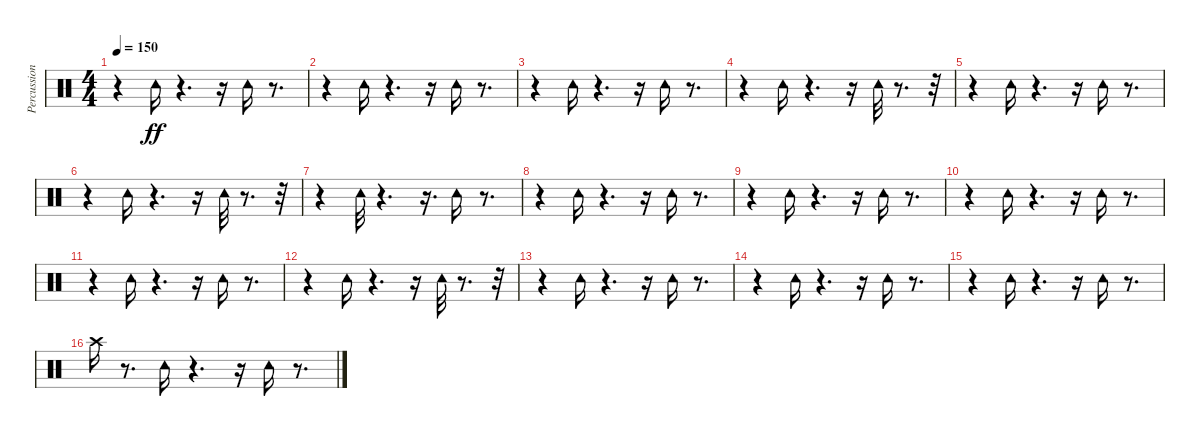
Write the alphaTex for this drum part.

\track ("Percussion" "Percussion") {instrument percussion}
\staff {score}
\articulation defaults
\ts (4 4)
\tempo 150
\clef neutral
\ks c
r.4{dy ff} "Tambourine (hit)".16 r.4{d} r.16 "Tambourine (hit)".16 r.8{d} |
r.4 "Tambourine (hit)".16 r.4{d} r.16 "Tambourine (hit)".16 r.8{d} |
r.4 "Tambourine (hit)".16 r.4{d} r.16 "Tambourine (hit)".16 r.8{d} |
r.4 "Tambourine (hit)".16 r.4{d} r.16 "Tambourine (hit)".32 r.8{d} r.32 |
r.4 "Tambourine (hit)".16 r.4{d} r.16 "Tambourine (hit)".16 r.8{d} |
r.4 "Tambourine (hit)".16 r.4{d} r.16 "Tambourine (hit)".32 r.8{d} r.32 |
r.4 "Tambourine (hit)".32 r.4{d} r.16{d} "Tambourine (hit)".16 r.8{d} |
r.4 "Tambourine (hit)".16 r.4{d} r.16 "Tambourine (hit)".16 r.8{d} |
r.4 "Tambourine (hit)".16 r.4{d} r.16 "Tambourine (hit)".16 r.8{d} |
r.4 "Tambourine (hit)".16 r.4{d} r.16 "Tambourine (hit)".16 r.8{d} |
r.4 "Tambourine (hit)".16 r.4{d} r.16 "Tambourine (hit)".16 r.8{d} |
r.4 "Tambourine (hit)".16 r.4{d} r.16 "Tambourine (hit)".32 r.8{d} r.32 |
r.4 "Tambourine (hit)".16 r.4{d} r.16 "Tambourine (hit)".16 r.8{d} |
r.4 "Tambourine (hit)".16 r.4{d} r.16 "Tambourine (hit)".16 r.8{d} |
r.4 "Tambourine (hit)".16 r.4{d} r.16 "Tambourine (hit)".16 r.8{d} |
"Crash high (hit)".16 r.8{d} "Tambourine (hit)".16 r.4{d} r.16 "Tambourine (hit)".16 r.8{d}
